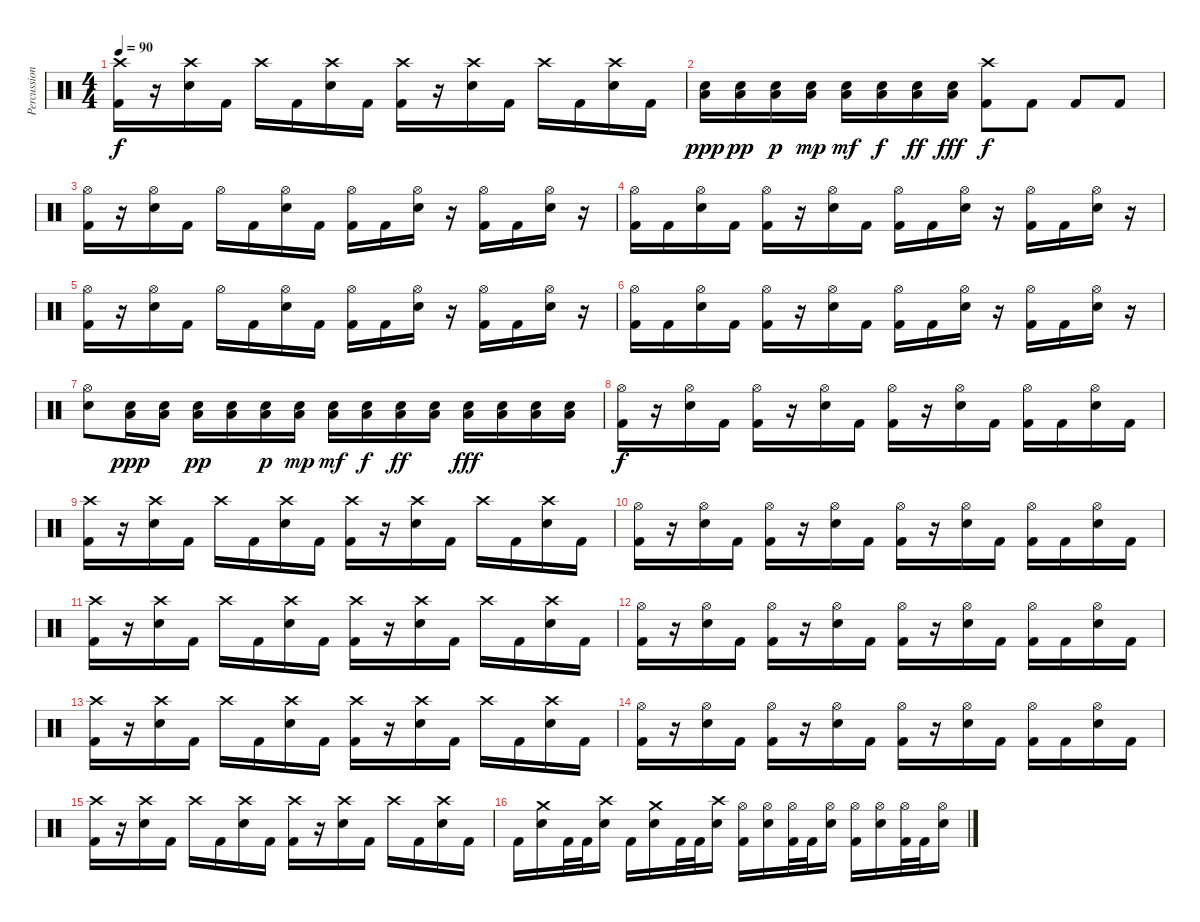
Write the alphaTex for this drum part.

\track ("Percussion" "Percussion") {instrument percussion}
\staff {score}
\articulation defaults
\ts (4 4)
\tempo 90
\clef neutral
\ks c
("Crash high (hit)" "Kick (hit) 2").16{dy f} r.16 ("Crash high (hit)" "Snare (hit) 2").16 "Kick (hit) 2".16 "Crash high (hit)".16 "Kick (hit) 2".16 ("Crash high (hit)" "Snare (hit) 2").16 "Kick (hit) 2".16 ("Crash high (hit)" "Kick (hit) 2").16 r.16 ("Crash high (hit)" "Snare (hit) 2").16 "Kick (hit) 2".16 "Crash high (hit)".16 "Kick (hit) 2".16 ("Crash high (hit)" "Snare (hit) 2").16 "Kick (hit) 2".16 |
("Low Floor Tom (hit)" "Snare (hit) 2").16{dy ppp} ("Low Floor Tom (hit)" "Snare (hit) 2").16{dy pp} ("Low Floor Tom (hit)" "Snare (hit) 2").16{dy p} ("Low Floor Tom (hit)" "Snare (hit) 2").16{dy mp} ("Low Floor Tom (hit)" "Snare (hit) 2").16{dy mf} ("Low Floor Tom (hit)" "Snare (hit) 2").16{dy f} ("Low Floor Tom (hit)" "Snare (hit) 2").16{dy ff} ("Low Floor Tom (hit)" "Snare (hit) 2").16{dy fff} ("Crash high (hit)" "Kick (hit) 2").8{dy f} "Kick (hit) 2".8 "Kick (hit) 2".8 "Kick (hit) 2".8 |
("Hi-Hat (open)" "Kick (hit) 2").16 r.16 ("Hi-Hat (open)" "Snare (hit) 2").16 "Kick (hit) 2".16 "Hi-Hat (open)".16 "Kick (hit) 2".16 ("Hi-Hat (open)" "Snare (hit) 2").16 "Kick (hit) 2".16 ("Hi-Hat (open)" "Kick (hit) 2").16 "Kick (hit) 2".16 ("Hi-Hat (open)" "Snare (hit) 2").16 r.16 ("Hi-Hat (open)" "Kick (hit) 2").16 "Kick (hit) 2".16 ("Hi-Hat (open)" "Snare (hit) 2").16 r.16 |
("Hi-Hat (open)" "Kick (hit) 2").16 "Kick (hit) 2".16 ("Hi-Hat (open)" "Snare (hit) 2").16 "Kick (hit) 2".16 ("Hi-Hat (open)" "Kick (hit) 2").16 r.16 ("Hi-Hat (open)" "Snare (hit) 2").16 "Kick (hit) 2".16 ("Hi-Hat (open)" "Kick (hit) 2").16 "Kick (hit) 2".16 ("Hi-Hat (open)" "Snare (hit) 2").16 r.16 ("Hi-Hat (open)" "Kick (hit) 2").16 "Kick (hit) 2".16 ("Hi-Hat (open)" "Snare (hit) 2").16 r.16 |
("Hi-Hat (open)" "Kick (hit) 2").16 r.16 ("Hi-Hat (open)" "Snare (hit) 2").16 "Kick (hit) 2".16 "Hi-Hat (open)".16 "Kick (hit) 2".16 ("Hi-Hat (open)" "Snare (hit) 2").16 "Kick (hit) 2".16 ("Hi-Hat (open)" "Kick (hit) 2").16 "Kick (hit) 2".16 ("Hi-Hat (open)" "Snare (hit) 2").16 r.16 ("Hi-Hat (open)" "Kick (hit) 2").16 "Kick (hit) 2".16 ("Hi-Hat (open)" "Snare (hit) 2").16 r.16 |
("Hi-Hat (open)" "Kick (hit) 2").16 "Kick (hit) 2".16 ("Hi-Hat (open)" "Snare (hit) 2").16 "Kick (hit) 2".16 ("Hi-Hat (open)" "Kick (hit) 2").16 r.16 ("Hi-Hat (open)" "Snare (hit) 2").16 "Kick (hit) 2".16 ("Hi-Hat (open)" "Kick (hit) 2").16 "Kick (hit) 2".16 ("Hi-Hat (open)" "Snare (hit) 2").16 r.16 ("Hi-Hat (open)" "Kick (hit) 2").16 "Kick (hit) 2".16 ("Hi-Hat (open)" "Snare (hit) 2").16 r.16 |
("Snare (hit) 2" "Hi-Hat (open)").8 ("Low Floor Tom (hit)" "Snare (hit) 2").16{dy ppp} ("Low Floor Tom (hit)" "Snare (hit) 2").16 ("Low Floor Tom (hit)" "Snare (hit) 2").16{dy pp} ("Low Floor Tom (hit)" "Snare (hit) 2").16 ("Low Floor Tom (hit)" "Snare (hit) 2").16{dy p} ("Low Floor Tom (hit)" "Snare (hit) 2").16{dy mp} ("Low Floor Tom (hit)" "Snare (hit) 2").16{dy mf} ("Low Floor Tom (hit)" "Snare (hit) 2").16{dy f} ("Low Floor Tom (hit)" "Snare (hit) 2").16{dy ff} ("Low Floor Tom (hit)" "Snare (hit) 2").16 ("Low Floor Tom (hit)" "Snare (hit) 2").16{dy fff} ("Low Floor Tom (hit)" "Snare (hit) 2").16 ("Low Floor Tom (hit)" "Snare (hit) 2").16 ("Low Floor Tom (hit)" "Snare (hit) 2").16 |
("Hi-Hat (open)" "Kick (hit) 2").16{dy f} r.16 ("Hi-Hat (open)" "Snare (hit) 2").16 "Kick (hit) 2".16 ("Hi-Hat (open)" "Kick (hit) 2").16 r.16 ("Hi-Hat (open)" "Snare (hit) 2").16 "Kick (hit) 2".16 ("Hi-Hat (open)" "Kick (hit) 2").16 r.16 ("Hi-Hat (open)" "Snare (hit) 2").16 "Kick (hit) 2".16 ("Hi-Hat (open)" "Kick (hit) 2").16 "Kick (hit) 2".16 ("Hi-Hat (open)" "Snare (hit) 2").16 "Kick (hit) 2".16 |
("Crash high (hit)" "Kick (hit) 2").16 r.16 ("Crash high (hit)" "Snare (hit) 2").16 "Kick (hit) 2".16 "Crash high (hit)".16 "Kick (hit) 2".16 ("Crash high (hit)" "Snare (hit) 2").16 "Kick (hit) 2".16 ("Crash high (hit)" "Kick (hit) 2").16 r.16 ("Crash high (hit)" "Snare (hit) 2").16 "Kick (hit) 2".16 "Crash high (hit)".16 "Kick (hit) 2".16 ("Crash high (hit)" "Snare (hit) 2").16 "Kick (hit) 2".16 |
("Hi-Hat (open)" "Kick (hit) 2").16 r.16 ("Hi-Hat (open)" "Snare (hit) 2").16 "Kick (hit) 2".16 ("Hi-Hat (open)" "Kick (hit) 2").16 r.16 ("Hi-Hat (open)" "Snare (hit) 2").16 "Kick (hit) 2".16 ("Hi-Hat (open)" "Kick (hit) 2").16 r.16 ("Hi-Hat (open)" "Snare (hit) 2").16 "Kick (hit) 2".16 ("Hi-Hat (open)" "Kick (hit) 2").16 "Kick (hit) 2".16 ("Hi-Hat (open)" "Snare (hit) 2").16 "Kick (hit) 2".16 |
("Crash high (hit)" "Kick (hit) 2").16 r.16 ("Crash high (hit)" "Snare (hit) 2").16 "Kick (hit) 2".16 "Crash high (hit)".16 "Kick (hit) 2".16 ("Crash high (hit)" "Snare (hit) 2").16 "Kick (hit) 2".16 ("Crash high (hit)" "Kick (hit) 2").16 r.16 ("Crash high (hit)" "Snare (hit) 2").16 "Kick (hit) 2".16 "Crash high (hit)".16 "Kick (hit) 2".16 ("Crash high (hit)" "Snare (hit) 2").16 "Kick (hit) 2".16 |
("Hi-Hat (open)" "Kick (hit) 2").16 r.16 ("Hi-Hat (open)" "Snare (hit) 2").16 "Kick (hit) 2".16 ("Hi-Hat (open)" "Kick (hit) 2").16 r.16 ("Hi-Hat (open)" "Snare (hit) 2").16 "Kick (hit) 2".16 ("Hi-Hat (open)" "Kick (hit) 2").16 r.16 ("Hi-Hat (open)" "Snare (hit) 2").16 "Kick (hit) 2".16 ("Hi-Hat (open)" "Kick (hit) 2").16 "Kick (hit) 2".16 ("Hi-Hat (open)" "Snare (hit) 2").16 "Kick (hit) 2".16 |
("Crash high (hit)" "Kick (hit) 2").16 r.16 ("Crash high (hit)" "Snare (hit) 2").16 "Kick (hit) 2".16 "Crash high (hit)".16 "Kick (hit) 2".16 ("Crash high (hit)" "Snare (hit) 2").16 "Kick (hit) 2".16 ("Crash high (hit)" "Kick (hit) 2").16 r.16 ("Crash high (hit)" "Snare (hit) 2").16 "Kick (hit) 2".16 "Crash high (hit)".16 "Kick (hit) 2".16 ("Crash high (hit)" "Snare (hit) 2").16 "Kick (hit) 2".16 |
("Hi-Hat (open)" "Kick (hit) 2").16 r.16 ("Hi-Hat (open)" "Snare (hit) 2").16 "Kick (hit) 2".16 ("Hi-Hat (open)" "Kick (hit) 2").16 r.16 ("Hi-Hat (open)" "Snare (hit) 2").16 "Kick (hit) 2".16 ("Hi-Hat (open)" "Kick (hit) 2").16 r.16 ("Hi-Hat (open)" "Snare (hit) 2").16 "Kick (hit) 2".16 ("Hi-Hat (open)" "Kick (hit) 2").16 "Kick (hit) 2".16 ("Hi-Hat (open)" "Snare (hit) 2").16 "Kick (hit) 2".16 |
("Crash high (hit)" "Kick (hit) 2").16 r.16 ("Crash high (hit)" "Snare (hit) 2").16 "Kick (hit) 2".16 "Crash high (hit)".16 "Kick (hit) 2".16 ("Crash high (hit)" "Snare (hit) 2").16 "Kick (hit) 2".16 ("Crash high (hit)" "Kick (hit) 2").16 r.16 ("Crash high (hit)" "Snare (hit) 2").16 "Kick (hit) 2".16 "Crash high (hit)".16 "Kick (hit) 2".16 ("Crash high (hit)" "Snare (hit) 2").16 "Kick (hit) 2".16 |
"Kick (hit) 2".16 ("Crash medium (hit)" "Snare (hit) 2").16 "Kick (hit) 2".32 "Kick (hit) 2".32 ("Crash high (hit)" "Snare (hit) 2").16 "Kick (hit) 2".16 ("Crash medium (hit)" "Snare (hit) 2").16 "Kick (hit) 2".32 "Kick (hit) 2".32 ("Crash high (hit)" "Snare (hit) 2").16 ("Hi-Hat (open)" "Kick (hit) 2").16 ("Hi-Hat (open)" "Snare (hit) 2").16 ("Hi-Hat (open)" "Kick (hit) 2").32 "Kick (hit) 2".32 ("Hi-Hat (open)" "Snare (hit) 2").16 ("Hi-Hat (open)" "Kick (hit) 2").16 ("Hi-Hat (open)" "Snare (hit) 2").16 ("Hi-Hat (open)" "Kick (hit) 2").32 "Kick (hit) 2".32 ("Hi-Hat (open)" "Snare (hit) 2").16
